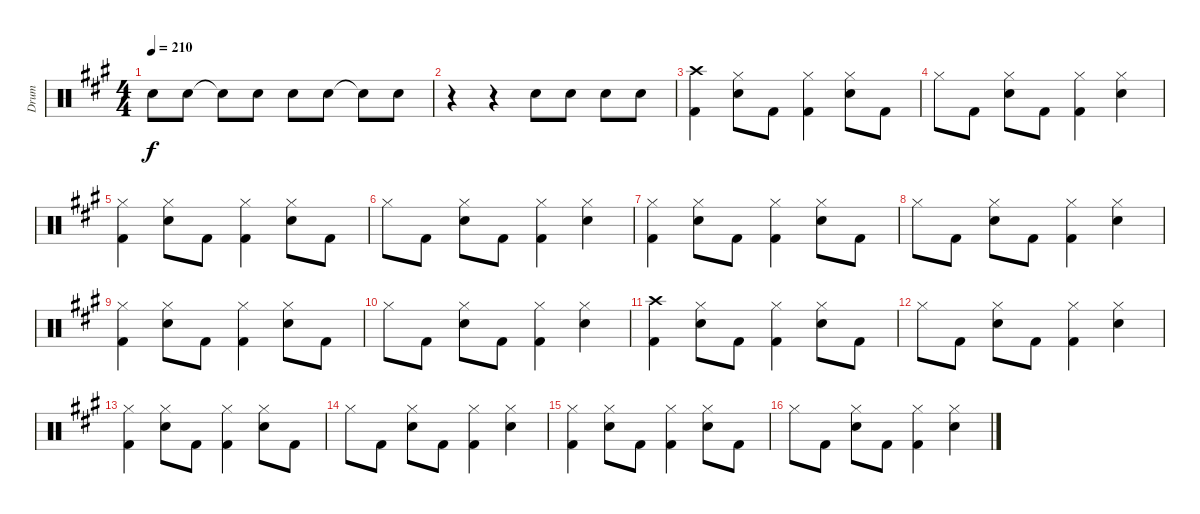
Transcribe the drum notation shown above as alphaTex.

\track ("Drum" "Drum") {instrument percussion}
\staff {score}
\articulation defaults
\ts (4 4)
\tempo 210
\clef neutral
\ks a "Electric Snare (hit)".8{dy f} "Electric Snare (hit)".8 "Electric Snare (hit)"{t}.8 "Electric Snare (hit)".8 "Electric Snare (hit)".8 "Electric Snare (hit)".8 "Snare (hit)"{t}.8 "Electric Snare (hit)".8
|
r.4 r.4 "Electric Snare (hit)".8 "Electric Snare (hit)".8 "Electric Snare (hit)".8 "Electric Snare (hit)".8 |
("Crash high (hit)" "Kick (hit) 2").4 ("Hi-Hat (closed)" "Electric Snare (hit)").8 "Kick (hit) 2".8 ("Hi-Hat (closed)" "Kick (hit) 2").4 ("Hi-Hat (closed)" "Electric Snare (hit)").8 "Kick (hit) 2".8 |
"Hi-Hat (closed)".8 "Kick (hit) 2".8 ("Hi-Hat (closed)" "Electric Snare (hit)").8 "Kick (hit) 2".8 ("Hi-Hat (closed)" "Kick (hit) 2").4 ("Hi-Hat (closed)" "Electric Snare (hit)").4 |
("Hi-Hat (closed)" "Kick (hit) 2").4 ("Hi-Hat (closed)" "Electric Snare (hit)").8 "Kick (hit) 2".8 ("Hi-Hat (closed)" "Kick (hit) 2").4 ("Hi-Hat (closed)" "Electric Snare (hit)").8 "Kick (hit) 2".8 |
"Hi-Hat (closed)".8 "Kick (hit) 2".8 ("Hi-Hat (closed)" "Electric Snare (hit)").8 "Kick (hit) 2".8 ("Hi-Hat (closed)" "Kick (hit) 2").4 ("Hi-Hat (closed)" "Electric Snare (hit)").4 |
("Hi-Hat (closed)" "Kick (hit) 2").4 ("Hi-Hat (closed)" "Electric Snare (hit)").8 "Kick (hit) 2".8 ("Hi-Hat (closed)" "Kick (hit) 2").4 ("Hi-Hat (closed)" "Electric Snare (hit)").8 "Kick (hit) 2".8 |
"Hi-Hat (closed)".8 "Kick (hit) 2".8 ("Hi-Hat (closed)" "Electric Snare (hit)").8 "Kick (hit) 2".8 ("Hi-Hat (closed)" "Kick (hit) 2").4 ("Hi-Hat (closed)" "Electric Snare (hit)").4 |
("Hi-Hat (closed)" "Kick (hit) 2").4 ("Hi-Hat (closed)" "Electric Snare (hit)").8 "Kick (hit) 2".8 ("Hi-Hat (closed)" "Kick (hit) 2").4 ("Hi-Hat (closed)" "Electric Snare (hit)").8 "Kick (hit) 2".8 |
"Hi-Hat (closed)".8 "Kick (hit) 2".8 ("Hi-Hat (closed)" "Electric Snare (hit)").8 "Kick (hit) 2".8 ("Hi-Hat (closed)" "Kick (hit) 2").4 ("Hi-Hat (closed)" "Electric Snare (hit)").4 |
("Crash high (hit)" "Kick (hit) 2").4 ("Hi-Hat (closed)" "Electric Snare (hit)").8 "Kick (hit) 2".8 ("Hi-Hat (closed)" "Kick (hit) 2").4 ("Hi-Hat (closed)" "Electric Snare (hit)").8 "Kick (hit) 2".8 |
"Hi-Hat (closed)".8 "Kick (hit) 2".8 ("Hi-Hat (closed)" "Electric Snare (hit)").8 "Kick (hit) 2".8 ("Hi-Hat (closed)" "Kick (hit) 2").4 ("Hi-Hat (closed)" "Electric Snare (hit)").4 |
("Hi-Hat (closed)" "Kick (hit) 2").4 ("Hi-Hat (closed)" "Electric Snare (hit)").8 "Kick (hit) 2".8 ("Hi-Hat (closed)" "Kick (hit) 2").4 ("Hi-Hat (closed)" "Electric Snare (hit)").8 "Kick (hit) 2".8 |
"Hi-Hat (closed)".8 "Kick (hit) 2".8 ("Hi-Hat (closed)" "Electric Snare (hit)").8 "Kick (hit) 2".8 ("Hi-Hat (closed)" "Kick (hit) 2").4 ("Hi-Hat (closed)" "Electric Snare (hit)").4 |
("Hi-Hat (closed)" "Kick (hit) 2").4 ("Hi-Hat (closed)" "Electric Snare (hit)").8 "Kick (hit) 2".8 ("Hi-Hat (closed)" "Kick (hit) 2").4 ("Hi-Hat (closed)" "Electric Snare (hit)").8 "Kick (hit) 2".8 |
"Hi-Hat (closed)".8 "Kick (hit) 2".8 ("Hi-Hat (closed)" "Electric Snare (hit)").8 "Kick (hit) 2".8 ("Hi-Hat (closed)" "Kick (hit) 2").4 ("Hi-Hat (closed)" "Electric Snare (hit)").4
